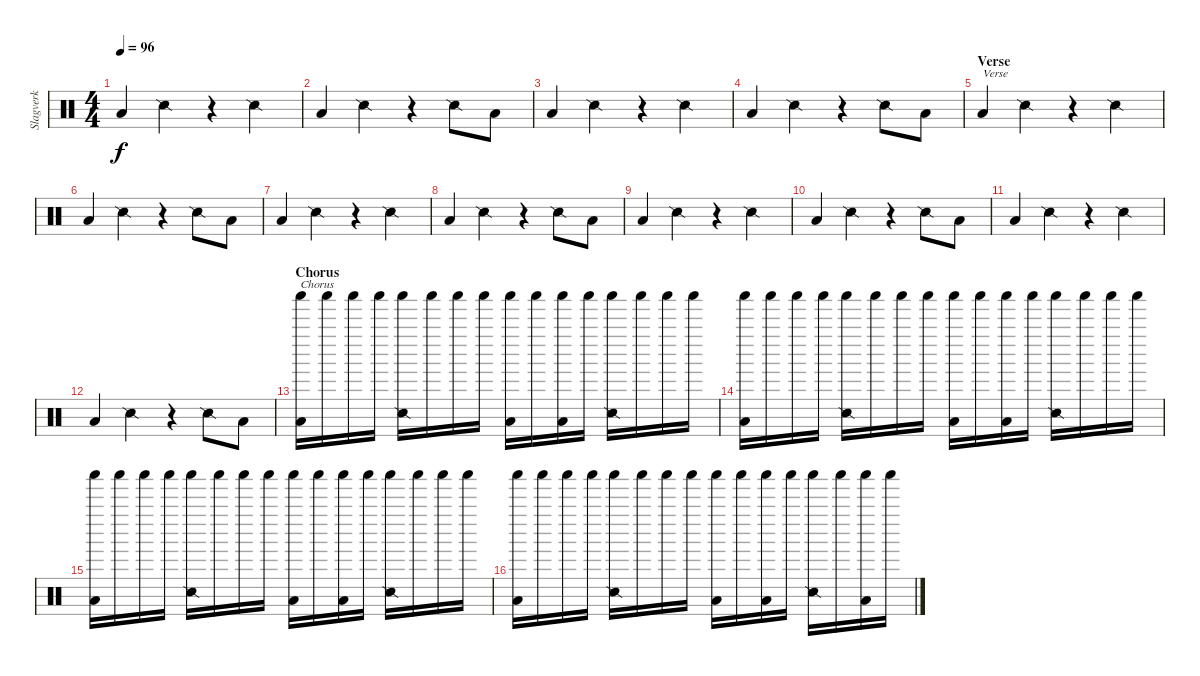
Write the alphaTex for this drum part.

\track ("Slagverk" "Slagverk") {instrument percussion}
\staff {score}
\articulation defaults
\ts (4 4)
\tempo 96
\clef neutral
\ks c "Low Floor Tom (hit)".4{dy f} "Snare (side stick) 2".4
r.4 "Snare (side stick) 2".4 |
"Low Floor Tom (hit)".4 "Snare (side stick) 2".4 r.4 "Snare (side stick) 2".8 "Low Floor Tom (hit)".8 |
"Low Floor Tom (hit)".4 "Snare (side stick) 2".4 r.4 "Snare (side stick) 2".4 |
"Low Floor Tom (hit)".4 "Snare (side stick) 2".4 r.4 "Snare (side stick) 2".8 "Low Floor Tom (hit)".8 |
\section ("" "Verse")
"Low Floor Tom (hit)".4{txt "Verse"} "Snare (side stick) 2".4 r.4 "Snare (side stick) 2".4 |
"Low Floor Tom (hit)".4 "Snare (side stick) 2".4 r.4 "Snare (side stick) 2".8 "Low Floor Tom (hit)".8 |
"Low Floor Tom (hit)".4 "Snare (side stick) 2".4 r.4 "Snare (side stick) 2".4 |
"Low Floor Tom (hit)".4 "Snare (side stick) 2".4 r.4 "Snare (side stick) 2".8 "Low Floor Tom (hit)".8 |
"Low Floor Tom (hit)".4 "Snare (side stick) 2".4 r.4 "Snare (side stick) 2".4 |
"Low Floor Tom (hit)".4 "Snare (side stick) 2".4 r.4 "Snare (side stick) 2".8 "Low Floor Tom (hit)".8 |
"Low Floor Tom (hit)".4 "Snare (side stick) 2".4 r.4 "Snare (side stick) 2".4 |
"Low Floor Tom (hit)".4 "Snare (side stick) 2".4 r.4 "Snare (side stick) 2".8 "Low Floor Tom (hit)".8 |
\section ("" "Chorus")
("Shaker (hit)" "Low Floor Tom (hit)").16{txt "Chorus"} "Shaker (hit)".16 "Shaker (hit)".16 "Shaker (hit)".16 ("Shaker (hit)" "Snare (side stick) 2").16 "Shaker (hit)".16 "Shaker (hit)".16 "Shaker (hit)".16 ("Shaker (hit)" "Low Floor Tom (hit)").16 "Shaker (hit)".16 ("Shaker (hit)" "Low Floor Tom (hit)").16 "Shaker (hit)".16 ("Shaker (hit)" "Snare (side stick) 2").16 "Shaker (hit)".16 "Shaker (hit)".16 "Shaker (hit)".16 |
("Shaker (hit)" "Low Floor Tom (hit)").16 "Shaker (hit)".16 "Shaker (hit)".16 "Shaker (hit)".16 ("Shaker (hit)" "Snare (side stick) 2").16 "Shaker (hit)".16 "Shaker (hit)".16 "Shaker (hit)".16 ("Shaker (hit)" "Low Floor Tom (hit)").16 "Shaker (hit)".16 ("Shaker (hit)" "Low Floor Tom (hit)").16 "Shaker (hit)".16 ("Shaker (hit)" "Snare (side stick) 2").16 "Shaker (hit)".16 "Shaker (hit)".16 "Shaker (hit)".16 |
("Shaker (hit)" "Low Floor Tom (hit)").16 "Shaker (hit)".16 "Shaker (hit)".16 "Shaker (hit)".16 ("Shaker (hit)" "Snare (side stick) 2").16 "Shaker (hit)".16 "Shaker (hit)".16 "Shaker (hit)".16 ("Shaker (hit)" "Low Floor Tom (hit)").16 "Shaker (hit)".16 ("Shaker (hit)" "Low Floor Tom (hit)").16 "Shaker (hit)".16 ("Shaker (hit)" "Snare (side stick) 2").16 "Shaker (hit)".16 "Shaker (hit)".16 "Shaker (hit)".16 |
("Shaker (hit)" "Low Floor Tom (hit)").16 "Shaker (hit)".16 "Shaker (hit)".16 "Shaker (hit)".16 ("Shaker (hit)" "Snare (side stick) 2").16 "Shaker (hit)".16 "Shaker (hit)".16 "Shaker (hit)".16 ("Shaker (hit)" "Low Floor Tom (hit)").16 "Shaker (hit)".16 ("Shaker (hit)" "Low Floor Tom (hit)").16 "Shaker (hit)".16 ("Shaker (hit)" "Snare (side stick) 2").16 "Shaker (hit)".16 ("Shaker (hit)" "Low Floor Tom (hit)").16 "Shaker (hit)".16
